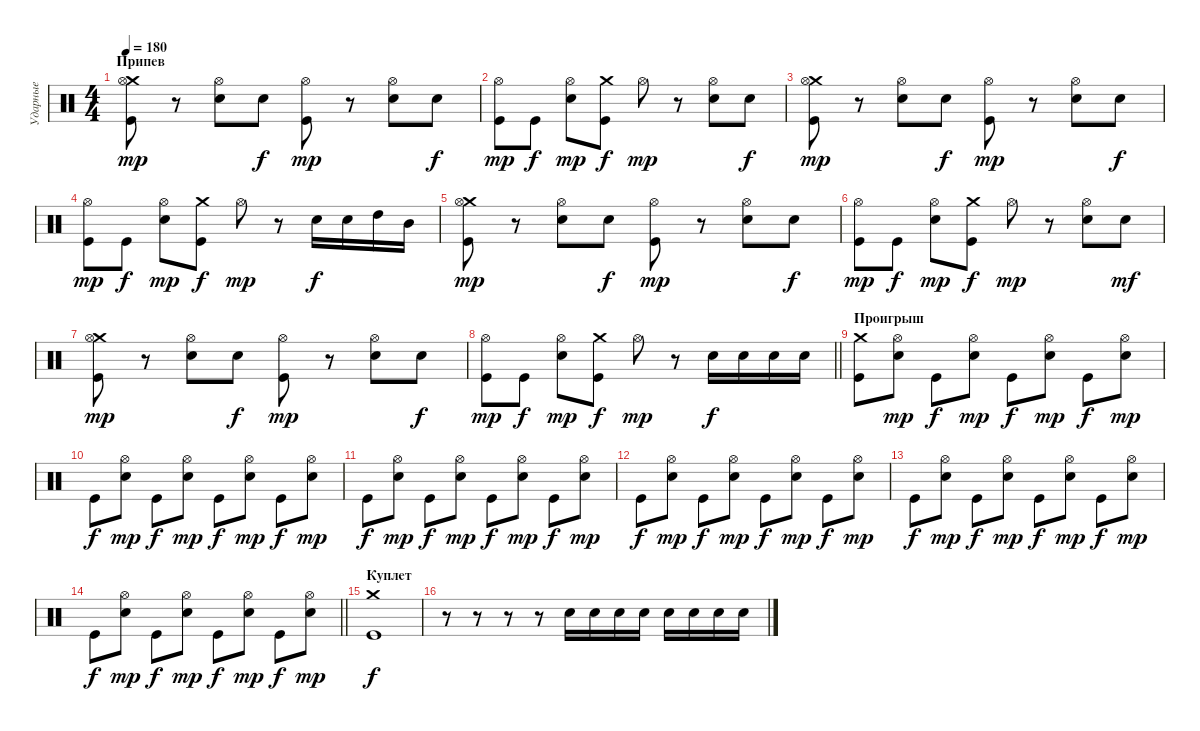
\track ("Ударные" "Ударные") {instrument percussion}
\staff {score}
\articulation defaults
\ts (4 4)
\section ("" "Припев")
\tempo 180
\clef neutral
\ks c
("Crash medium (hit)" "Kick (hit)" "Hi-Hat (open)").8{dy mp} r.8 ("Electric Snare (hit)" "Hi-Hat (open)").8 "Electric Snare (hit)".8{dy f} ("Kick (hit)" "Hi-Hat (open)").8{dy mp} r.8 ("Electric Snare (hit)" "Hi-Hat (open)").8 "Electric Snare (hit)".8{dy f} |
("Kick (hit)" "Hi-Hat (open)").8{dy mp} "Kick (hit)".8{dy f} ("Electric Snare (hit)" "Hi-Hat (open)").8{dy mp} ("Crash medium (hit)" "Kick (hit)").8{dy f} "Hi-Hat (open)".8{dy mp} r.8 ("Electric Snare (hit)" "Hi-Hat (open)").8 "Electric Snare (hit)".8{dy f} |
("Crash medium (hit)" "Kick (hit)" "Hi-Hat (open)").8{dy mp} r.8 ("Electric Snare (hit)" "Hi-Hat (open)").8 "Electric Snare (hit)".8{dy f} ("Kick (hit)" "Hi-Hat (open)").8{dy mp} r.8 ("Electric Snare (hit)" "Hi-Hat (open)").8 "Electric Snare (hit)".8{dy f} |
("Kick (hit)" "Hi-Hat (open)").8{dy mp} "Kick (hit)".8{dy f} ("Electric Snare (hit)" "Hi-Hat (open)").8{dy mp} ("Crash medium (hit)" "Kick (hit)").8{dy f} "Hi-Hat (open)".8{dy mp} r.8 "Electric Snare (hit)".16{dy f} "Electric Snare (hit)".16 "High Tom (hit)".16 "Mid Tom (hit)".16 |
("Crash medium (hit)" "Kick (hit)" "Hi-Hat (open)").8{dy mp} r.8 ("Electric Snare (hit)" "Hi-Hat (open)").8 "Electric Snare (hit)".8{dy f} ("Kick (hit)" "Hi-Hat (open)").8{dy mp} r.8 ("Electric Snare (hit)" "Hi-Hat (open)").8 "Electric Snare (hit)".8{dy f} |
("Kick (hit)" "Hi-Hat (open)").8{dy mp} "Kick (hit)".8{dy f} ("Electric Snare (hit)" "Hi-Hat (open)").8{dy mp} ("Crash medium (hit)" "Kick (hit)").8{dy f} "Hi-Hat (open)".8{dy mp} r.8 ("Electric Snare (hit)" "Hi-Hat (open)").8 "Electric Snare (hit)".8{dy mf} |
("Crash medium (hit)" "Kick (hit)" "Hi-Hat (open)").8{dy mp} r.8 ("Electric Snare (hit)" "Hi-Hat (open)").8 "Electric Snare (hit)".8{dy f} ("Kick (hit)" "Hi-Hat (open)").8{dy mp} r.8 ("Electric Snare (hit)" "Hi-Hat (open)").8 "Electric Snare (hit)".8{dy f} |
\barLineRight lightlight
("Kick (hit)" "Hi-Hat (open)").8{dy mp} "Kick (hit)".8{dy f} ("Electric Snare (hit)" "Hi-Hat (open)").8{dy mp} ("Crash medium (hit)" "Kick (hit)").8{dy f} "Hi-Hat (open)".8{dy mp} r.8 "Electric Snare (hit)".16{dy f} "Electric Snare (hit)".16 "Electric Snare (hit)".16 "Electric Snare (hit)".16 |
\section ("" "Проигрыш")
("Kick (hit)" "Crash medium (hit)").8 ("Electric Snare (hit)" "Hi-Hat (open)").8{dy mp} "Kick (hit)".8{dy f} ("Electric Snare (hit)" "Hi-Hat (open)").8{dy mp} "Kick (hit)".8{dy f} ("Electric Snare (hit)" "Hi-Hat (open)").8{dy mp} "Kick (hit)".8{dy f} ("Electric Snare (hit)" "Hi-Hat (open)").8{dy mp} |
"Kick (hit)".8{dy f} ("Electric Snare (hit)" "Hi-Hat (open)").8{dy mp} "Kick (hit)".8{dy f} ("Electric Snare (hit)" "Hi-Hat (open)").8{dy mp} "Kick (hit)".8{dy f} ("Electric Snare (hit)" "Hi-Hat (open)").8{dy mp} "Kick (hit)".8{dy f} ("Electric Snare (hit)" "Hi-Hat (open)").8{dy mp} |
"Kick (hit)".8{dy f} ("Electric Snare (hit)" "Hi-Hat (open)").8{dy mp} "Kick (hit)".8{dy f} ("Electric Snare (hit)" "Hi-Hat (open)").8{dy mp} "Kick (hit)".8{dy f} ("Electric Snare (hit)" "Hi-Hat (open)").8{dy mp} "Kick (hit)".8{dy f} ("Electric Snare (hit)" "Hi-Hat (open)").8{dy mp} |
"Kick (hit)".8{dy f} ("Electric Snare (hit)" "Hi-Hat (open)").8{dy mp} "Kick (hit)".8{dy f} ("Electric Snare (hit)" "Hi-Hat (open)").8{dy mp} "Kick (hit)".8{dy f} ("Electric Snare (hit)" "Hi-Hat (open)").8{dy mp} "Kick (hit)".8{dy f} ("Electric Snare (hit)" "Hi-Hat (open)").8{dy mp} |
"Kick (hit)".8{dy f} ("Electric Snare (hit)" "Hi-Hat (open)").8{dy mp} "Kick (hit)".8{dy f} ("Electric Snare (hit)" "Hi-Hat (open)").8{dy mp} "Kick (hit)".8{dy f} ("Electric Snare (hit)" "Hi-Hat (open)").8{dy mp} "Kick (hit)".8{dy f} ("Electric Snare (hit)" "Hi-Hat (open)").8{dy mp} |
\barLineRight lightlight "Kick (hit)".8{dy f}
("Electric Snare (hit)" "Hi-Hat (open)").8{dy mp} "Kick (hit)".8{dy f} ("Electric Snare (hit)" "Hi-Hat (open)").8{dy mp} "Kick (hit)".8{dy f} ("Electric Snare (hit)" "Hi-Hat (open)").8{dy mp} "Kick (hit)".8{dy f} ("Electric Snare (hit)" "Hi-Hat (open)").8{dy mp} |
\section ("" "Куплет")
("Crash medium (hit)" "Kick (hit)").1{dy f} |
r.8 r.8 r.8 r.8 "Electric Snare (hit)".16 "Electric Snare (hit)".16 "Electric Snare (hit)".16 "Electric Snare (hit)".16 "Electric Snare (hit)".16 "Electric Snare (hit)".16 "Electric Snare (hit)".16 "Electric Snare (hit)".16
